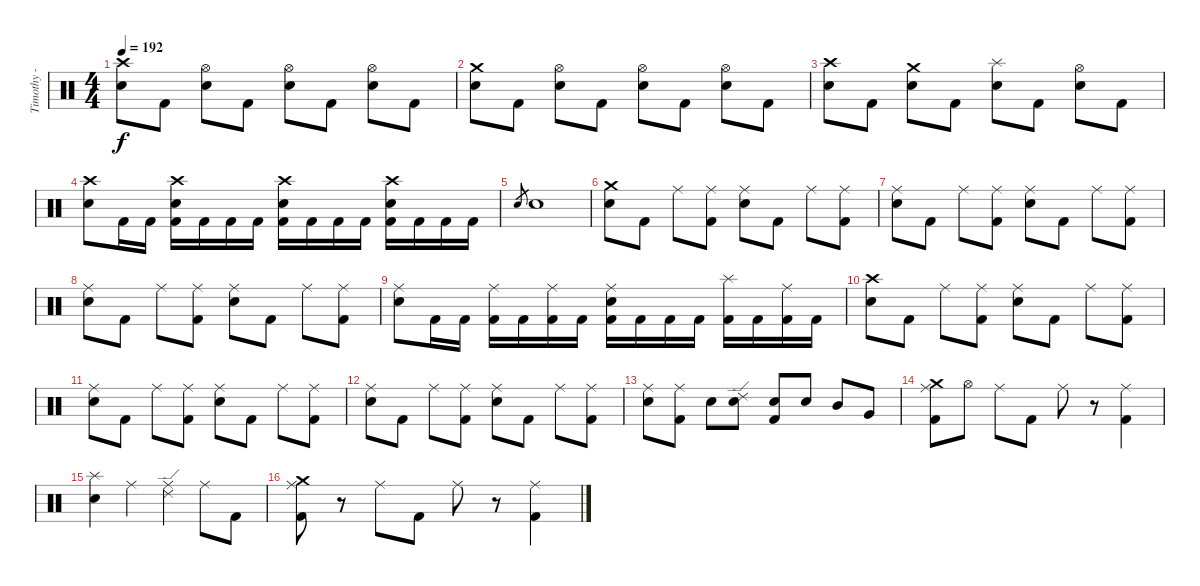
\track ("Timothy - Drums" "Timothy - ") {instrument percussion}
\staff {score}
\articulation defaults
\ts (4 4)
\tempo 192
\clef neutral
\ks c
("Crash high (hit)" "Electric Snare (hit)").8{dy f} "Kick (hit) 2".8 ("Hi-Hat (open)" "Electric Snare (hit)").8 "Kick (hit) 2".8 ("Hi-Hat (open)" "Electric Snare (hit)").8 "Kick (hit) 2".8 ("Hi-Hat (open)" "Electric Snare (hit)").8 "Kick (hit) 2".8 |
("Crash medium (hit)" "Electric Snare (hit)").8 "Kick (hit) 2".8 ("Hi-Hat (open)" "Electric Snare (hit)").8 "Kick (hit) 2".8 ("Hi-Hat (open)" "Electric Snare (hit)").8 "Kick (hit) 2".8 ("Hi-Hat (open)" "Electric Snare (hit)").8 "Kick (hit) 2".8 |
("Crash high (hit)" "Electric Snare (hit)").8 "Kick (hit) 2".8 ("Crash medium (hit)" "Electric Snare (hit)").8 "Kick (hit) 2".8 ("Splash (hit)" "Electric Snare (hit)").8 "Kick (hit) 2".8 ("Hi-Hat (open)" "Electric Snare (hit)").8 "Kick (hit) 2".8 |
("Crash high (hit)" "Electric Snare (hit)").8 "Kick (hit) 2".16 "Kick (hit) 2".16 ("Crash high (hit)" "Electric Snare (hit)" "Kick (hit) 2").16 "Kick (hit) 2".16 "Kick (hit) 2".16 "Kick (hit) 2".16 ("Crash high (hit)" "Electric Snare (hit)" "Kick (hit) 2").16 "Kick (hit) 2".16 "Kick (hit) 2".16 "Kick (hit) 2".16 ("Crash high (hit)" "Electric Snare (hit)" "Kick (hit) 2").16 "Kick (hit) 2".16 "Kick (hit) 2".16 "Kick (hit) 2".16 |
"Electric Snare (hit)".8{gr} "Electric Snare (hit)".1 |
("Crash medium (hit)" "Electric Snare (hit)").8 "Kick (hit) 2".8 "Ride (middle)".8 ("Ride (middle)" "Kick (hit) 2").8 ("Ride (middle)" "Electric Snare (hit)").8 "Kick (hit) 2".8 "Ride (middle)".8 ("Ride (middle)" "Kick (hit) 2").8 |
("Ride (middle)" "Electric Snare (hit)").8 "Kick (hit) 2".8 "Ride (middle)".8 ("Ride (middle)" "Kick (hit) 2").8 ("Ride (middle)" "Electric Snare (hit)").8 "Kick (hit) 2".8 "Ride (middle)".8 ("Ride (middle)" "Kick (hit) 2").8 |
("Ride (middle)" "Electric Snare (hit)").8 "Kick (hit) 2".8 "Ride (middle)".8 ("Ride (middle)" "Kick (hit) 2").8 ("Ride (middle)" "Electric Snare (hit)").8 "Kick (hit) 2".8 "Ride (middle)".8 ("Ride (middle)" "Kick (hit) 2").8 |
("Ride (middle)" "Electric Snare (hit)").8 "Kick (hit) 2".16 "Kick (hit) 2".16 ("Ride (middle)" "Kick (hit) 2").16 "Kick (hit) 2".16 ("Ride (middle)" "Kick (hit) 2").16 "Kick (hit) 2".16 ("Ride (middle)" "Electric Snare (hit)" "Kick (hit) 2").16 "Kick (hit) 2".16 "Kick (hit) 2".16 "Kick (hit) 2".16 ("Splash (hit)" "Kick (hit) 2").16 "Kick (hit) 2".16 ("Ride (middle)" "Kick (hit) 2").16 "Kick (hit) 2".16 |
("Crash high (hit)" "Electric Snare (hit)").8 "Kick (hit) 2".8 "Ride (middle)".8 ("Ride (middle)" "Kick (hit) 2").8 ("Ride (middle)" "Electric Snare (hit)").8 "Kick (hit) 2".8 "Ride (middle)".8 ("Ride (middle)" "Kick (hit) 2").8 |
("Ride (middle)" "Electric Snare (hit)").8 "Kick (hit) 2".8 "Ride (middle)".8 ("Ride (middle)" "Kick (hit) 2").8 ("Ride (middle)" "Electric Snare (hit)").8 "Kick (hit) 2".8 "Ride (middle)".8 ("Ride (middle)" "Kick (hit) 2").8 |
("Ride (middle)" "Electric Snare (hit)").8 "Kick (hit) 2".8 "Ride (middle)".8 ("Ride (middle)" "Kick (hit) 2").8 ("Ride (middle)" "Electric Snare (hit)").8 "Kick (hit) 2".8 "Ride (middle)".8 ("Ride (middle)" "Kick (hit) 2").8 |
("Ride (middle)" "Electric Snare (hit)").8 ("Ride (middle)" "Kick (hit) 2").8 "Electric Snare (hit)".8 ("Ride (edge) 2" "Electric Snare (hit)").8 ("Electric Snare (hit)" "Kick (hit) 2").8 "Electric Snare (hit)".8 "Mid Tom (hit)".8 "Very Low Tom (hit)".8 |
("Crash medium (hit)" "Ride (middle)" "Kick (hit) 2").8 "Hi-Hat (open)".8 "Ride (middle)".8 "Kick (hit) 2".8 "Ride (middle)".8 r.8 ("Ride (middle)" "Kick (hit) 2").4 |
("Splash (hit)" "Electric Snare (hit)").4 "Ride (middle)".4 ("Ride (edge) 2" "Ride (middle)").4 "Ride (middle)".8 "Kick (hit) 2".8 |
("Crash medium (hit)" "Ride (middle)" "Kick (hit) 2").8 r.8 "Ride (middle)".8 "Kick (hit) 2".8 "Ride (middle)".8 r.8 ("Ride (middle)" "Kick (hit) 2").4
